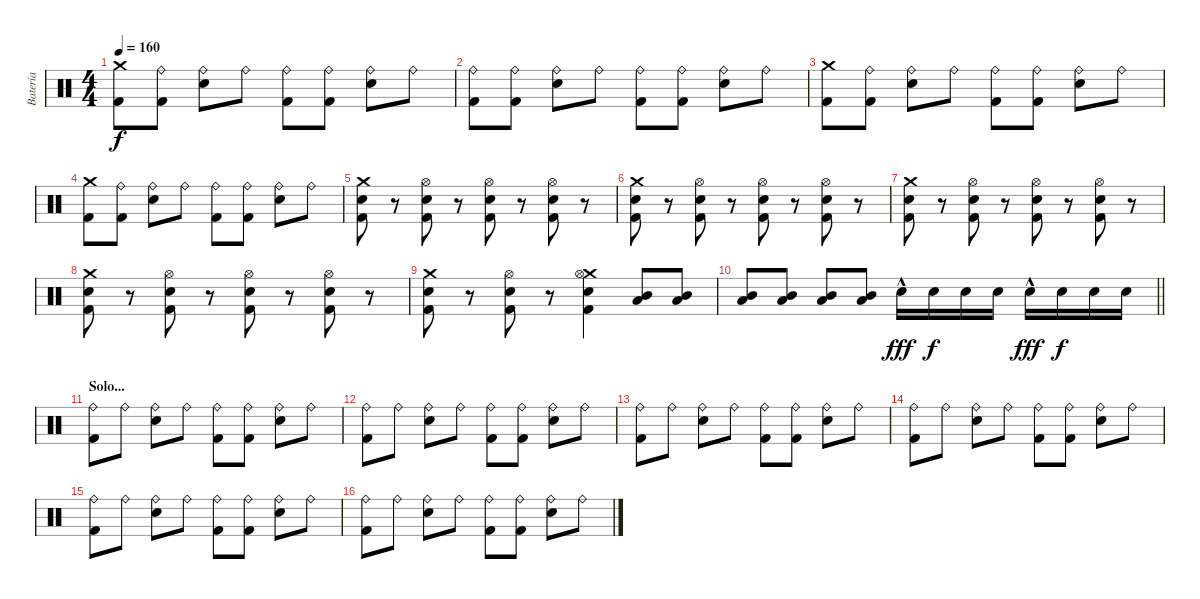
\track ("Batería" "Batería") {instrument percussion}
\staff {score}
\articulation defaults
\ts (4 4)
\tempo 160
\clef neutral
\ks c
("Crash medium (hit)" "Kick (hit) 2").8{dy f} ("Ride (bell)" "Kick (hit) 2").8 ("Ride (bell)" "Snare (hit) 2").8 "Ride (bell)".8 ("Ride (bell)" "Kick (hit) 2").8 ("Ride (bell)" "Kick (hit) 2").8 ("Ride (bell)" "Snare (hit) 2").8 "Ride (bell)".8 |
("Ride (bell)" "Kick (hit) 2").8 ("Ride (bell)" "Kick (hit) 2").8 ("Ride (bell)" "Snare (hit) 2").8 "Ride (bell)".8 ("Ride (bell)" "Kick (hit) 2").8 ("Ride (bell)" "Kick (hit) 2").8 ("Ride (bell)" "Snare (hit) 2").8 "Ride (bell)".8 |
("Crash medium (hit)" "Kick (hit) 2").8 ("Ride (bell)" "Kick (hit) 2").8 ("Ride (bell)" "Snare (hit) 2").8 "Ride (bell)".8 ("Ride (bell)" "Kick (hit) 2").8 ("Ride (bell)" "Kick (hit) 2").8 ("Ride (bell)" "Snare (hit) 2").8 "Ride (bell)".8 |
("Crash medium (hit)" "Kick (hit) 2").8 ("Ride (bell)" "Kick (hit) 2").8 ("Ride (bell)" "Snare (hit) 2").8 "Ride (bell)".8 ("Ride (bell)" "Kick (hit) 2").8 ("Ride (bell)" "Kick (hit) 2").8 ("Ride (bell)" "Snare (hit) 2").8 "Ride (bell)".8 |
("Crash medium (hit)" "Snare (hit) 2" "Kick (hit) 2").8 r.8 ("Hi-Hat (open)" "Snare (hit) 2" "Kick (hit) 2").8 r.8 ("Hi-Hat (open)" "Snare (hit) 2" "Kick (hit) 2").8 r.8 ("Hi-Hat (open)" "Snare (hit) 2" "Kick (hit) 2").8 r.8 |
("Crash medium (hit)" "Snare (hit) 2" "Kick (hit) 2").8 r.8 ("Hi-Hat (open)" "Snare (hit) 2" "Kick (hit) 2").8 r.8 ("Hi-Hat (open)" "Snare (hit) 2" "Kick (hit) 2").8 r.8 ("Hi-Hat (open)" "Snare (hit) 2" "Kick (hit) 2").8 r.8 |
("Crash medium (hit)" "Snare (hit) 2" "Kick (hit) 2").8 r.8 ("Hi-Hat (open)" "Snare (hit) 2" "Kick (hit) 2").8 r.8 ("Hi-Hat (open)" "Snare (hit) 2" "Kick (hit) 2").8 r.8 ("Hi-Hat (open)" "Snare (hit) 2" "Kick (hit) 2").8 r.8 |
("Crash medium (hit)" "Snare (hit) 2" "Kick (hit) 2").8 r.8 ("Hi-Hat (open)" "Snare (hit) 2" "Kick (hit) 2").8 r.8 ("Hi-Hat (open)" "Snare (hit) 2" "Kick (hit) 2").8 r.8 ("Hi-Hat (open)" "Snare (hit) 2" "Kick (hit) 2").8 r.8 |
("Crash medium (hit)" "Snare (hit) 2" "Kick (hit) 2").8 r.8 ("Hi-Hat (open)" "Snare (hit) 2" "Kick (hit) 2").8 r.8 ("Crash medium (hit)" "Hi-Hat (open)" "Snare (hit) 2" "Kick (hit) 2").4 ("Low Tom (hit)" "Mid Tom (hit)").8 ("Low Tom (hit)" "Mid Tom (hit)").8 |
\barLineRight lightlight
("Low Tom (hit)" "Mid Tom (hit)").8 ("Low Tom (hit)" "Mid Tom (hit)").8 ("Low Tom (hit)" "Mid Tom (hit)").8 ("Low Tom (hit)" "Mid Tom (hit)").8 "Snare (hit) 2"{hac}.16{dy fff} "Snare (hit) 2".16{dy f} "Snare (hit) 2".16 "Snare (hit) 2".16 "Snare (hit) 2"{hac}.16{dy fff} "Snare (hit) 2".16{dy f} "Snare (hit) 2".16 "Snare (hit) 2".16 |
\section ("" "Solo...")
("Ride (bell)" "Kick (hit) 2").8 "Ride (bell)".8 ("Ride (bell)" "Snare (hit) 2").8 "Ride (bell)".8 ("Ride (bell)" "Kick (hit) 2").8 ("Ride (bell)" "Kick (hit) 2").8 ("Ride (bell)" "Snare (hit) 2").8 "Ride (bell)".8 |
("Ride (bell)" "Kick (hit) 2").8 "Ride (bell)".8 ("Ride (bell)" "Snare (hit) 2").8 "Ride (bell)".8 ("Ride (bell)" "Kick (hit) 2").8 ("Ride (bell)" "Kick (hit) 2").8 ("Ride (bell)" "Snare (hit) 2").8 "Ride (bell)".8 |
("Ride (bell)" "Kick (hit) 2").8 "Ride (bell)".8 ("Ride (bell)" "Snare (hit) 2").8 "Ride (bell)".8 ("Ride (bell)" "Kick (hit) 2").8 ("Ride (bell)" "Kick (hit) 2").8 ("Ride (bell)" "Snare (hit) 2").8 "Ride (bell)".8 |
("Ride (bell)" "Kick (hit) 2").8 "Ride (bell)".8 ("Ride (bell)" "Snare (hit) 2").8 "Ride (bell)".8 ("Ride (bell)" "Kick (hit) 2").8 ("Ride (bell)" "Kick (hit) 2").8 ("Ride (bell)" "Snare (hit) 2").8 "Ride (bell)".8 |
("Ride (bell)" "Kick (hit) 2").8 "Ride (bell)".8 ("Ride (bell)" "Snare (hit) 2").8 "Ride (bell)".8 ("Ride (bell)" "Kick (hit) 2").8 ("Ride (bell)" "Kick (hit) 2").8 ("Ride (bell)" "Snare (hit) 2").8 "Ride (bell)".8 |
("Ride (bell)" "Kick (hit) 2").8 "Ride (bell)".8 ("Ride (bell)" "Snare (hit) 2").8 "Ride (bell)".8 ("Ride (bell)" "Kick (hit) 2").8 ("Ride (bell)" "Kick (hit) 2").8 ("Ride (bell)" "Snare (hit) 2").8 "Ride (bell)".8
